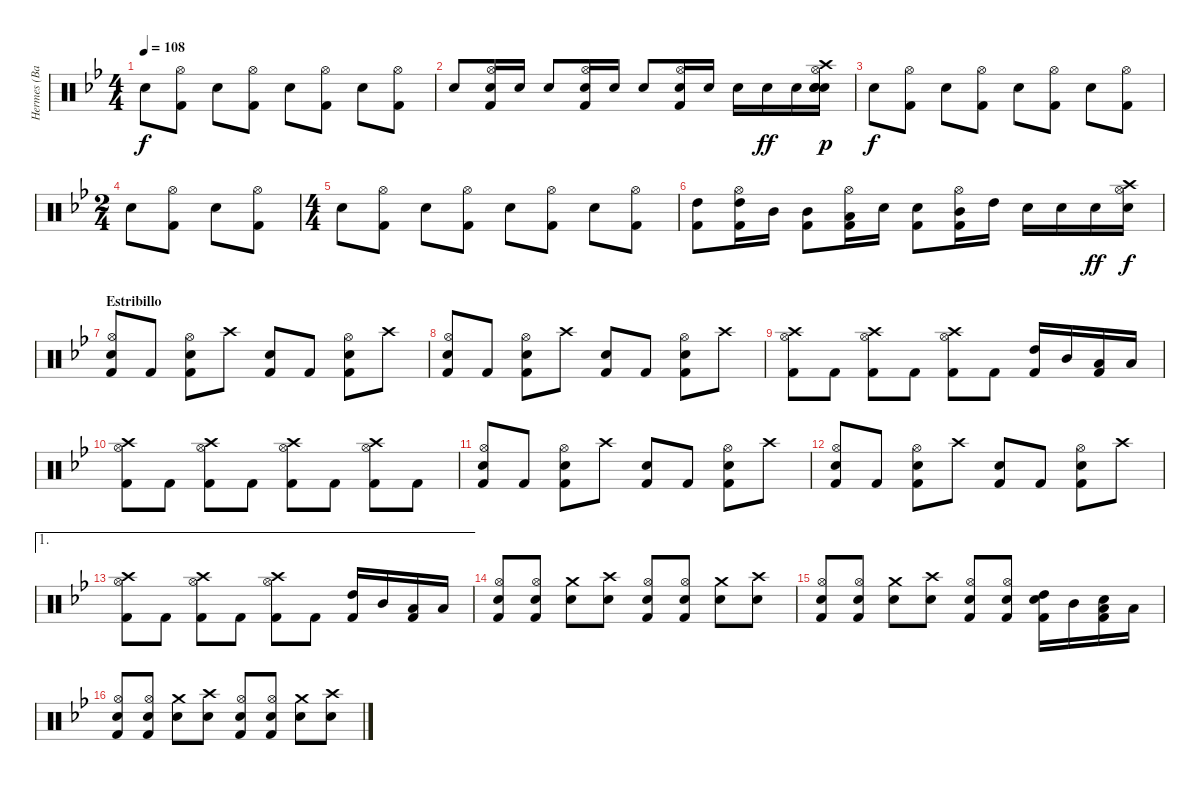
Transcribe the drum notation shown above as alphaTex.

\track ("Hermes (Bateria)" "Hermes (Ba") {instrument percussion}
\staff {score}
\articulation defaults
\ts (4 4)
\tempo 108
\clef neutral
\ks bb "Electric Snare (hit)".8{dy f}
("Hi-Hat (open)" "Kick (hit) 2").8 "Electric Snare (hit)".8 ("Hi-Hat (open)" "Kick (hit) 2").8 "Electric Snare (hit)".8 ("Hi-Hat (open)" "Kick (hit) 2").8 "Electric Snare (hit)".8 ("Hi-Hat (open)" "Kick (hit) 2").8 |
"Electric Snare (hit)".8 ("Hi-Hat (open)" "Electric Snare (hit)" "Kick (hit) 2").16 "Electric Snare (hit)".16 "Electric Snare (hit)".8 ("Hi-Hat (open)" "Electric Snare (hit)" "Kick (hit) 2").16 "Electric Snare (hit)".16 "Electric Snare (hit)".8 ("Hi-Hat (open)" "Electric Snare (hit)" "Kick (hit) 2").16 "Electric Snare (hit)".16 "Electric Snare (hit)".16 "Electric Snare (hit)".16{dy ff} "Electric Snare (hit)".16 ("Hi-Hat (open)" "Electric Snare (hit)" "Electric Snare (hit)" "Electric Snare (hit)" "Snare (hit) 2" "Crash high (hit)").16{dy p} |
"Electric Snare (hit)".8{dy f} ("Hi-Hat (open)" "Kick (hit) 2").8 "Electric Snare (hit)".8 ("Hi-Hat (open)" "Kick (hit) 2").8 "Electric Snare (hit)".8 ("Hi-Hat (open)" "Kick (hit) 2").8 "Electric Snare (hit)".8 ("Hi-Hat (open)" "Kick (hit) 2").8 |
\ts (2 4)
"Electric Snare (hit)".8 ("Hi-Hat (open)" "Kick (hit) 2").8 "Electric Snare (hit)".8 ("Hi-Hat (open)" "Kick (hit) 2").8 |
\ts (4 4)
"Electric Snare (hit)".8 ("Hi-Hat (open)" "Kick (hit) 2").8 "Electric Snare (hit)".8 ("Hi-Hat (open)" "Kick (hit) 2").8 "Electric Snare (hit)".8 ("Hi-Hat (open)" "Kick (hit) 2").8 "Electric Snare (hit)".8 ("Hi-Hat (open)" "Kick (hit) 2").8 |
("High Tom (hit)" "Kick (hit) 2").8 ("Hi-Hat (open)" "High Tom (hit)" "Kick (hit) 2").16 "Mid Tom (hit)".16 ("Mid Tom (hit)" "Kick (hit) 2").8 ("Hi-Hat (open)" "Low Tom (hit)" "Kick (hit) 2").16 "Electric Snare (hit)".16 ("Electric Snare (hit)" "Kick (hit) 2").8 ("Hi-Hat (open)" "Mid Tom (hit)" "Kick (hit) 2").16 "High Tom (hit)".16 "Electric Snare (hit)".16 "Electric Snare (hit)".16 "Electric Snare (hit)".16{dy ff} ("Hi-Hat (open)" "Electric Snare (hit)" "Crash high (hit)").16{dy f} |
\section ("" "Estribillo")
("Hi-Hat (open)" "Electric Snare (hit)" "Kick (hit) 2").8 "Kick (hit) 2".8 ("Hi-Hat (open)" "Electric Snare (hit)" "Kick (hit) 2").8 "Crash high (hit)".8 ("Electric Snare (hit)" "Kick (hit) 2").8 "Kick (hit) 2".8 ("Hi-Hat (open)" "Electric Snare (hit)" "Kick (hit) 2").8 "Crash high (hit)".8 |
("Hi-Hat (open)" "Electric Snare (hit)" "Kick (hit) 2").8 "Kick (hit) 2".8 ("Hi-Hat (open)" "Electric Snare (hit)" "Kick (hit) 2").8 "Crash high (hit)".8 ("Electric Snare (hit)" "Kick (hit) 2").8 "Kick (hit) 2".8 ("Hi-Hat (open)" "Electric Snare (hit)" "Kick (hit) 2").8 "Crash high (hit)".8 |
("Crash high (hit)" "Hi-Hat (open)" "Kick (hit) 2").8 "Kick (hit) 2".8 ("Crash high (hit)" "Hi-Hat (open)" "Kick (hit) 2").8 "Kick (hit) 2".8 ("Crash high (hit)" "Hi-Hat (open)" "Kick (hit) 2").8 "Kick (hit) 2".8 ("High Tom (hit)" "Kick (hit) 2").16 "Mid Tom (hit)".16 ("Low Tom (hit)" "Kick (hit) 2").16 "Low Tom (hit)".16 |
("Crash high (hit)" "Hi-Hat (open)" "Kick (hit) 2").8 "Kick (hit) 2".8 ("Crash high (hit)" "Hi-Hat (open)" "Kick (hit) 2").8 "Kick (hit) 2".8 ("Crash high (hit)" "Hi-Hat (open)" "Kick (hit) 2").8 "Kick (hit) 2".8 ("Crash high (hit)" "Hi-Hat (open)" "Kick (hit) 2").8 "Kick (hit) 2".8 |
("Hi-Hat (open)" "Electric Snare (hit)" "Kick (hit) 2").8 "Kick (hit) 2".8 ("Hi-Hat (open)" "Electric Snare (hit)" "Kick (hit) 2").8 "Crash high (hit)".8 ("Electric Snare (hit)" "Kick (hit) 2").8 "Kick (hit) 2".8 ("Hi-Hat (open)" "Electric Snare (hit)" "Kick (hit) 2").8 "Crash high (hit)".8 |
("Hi-Hat (open)" "Electric Snare (hit)" "Kick (hit) 2").8 "Kick (hit) 2".8 ("Hi-Hat (open)" "Electric Snare (hit)" "Kick (hit) 2").8 "Crash high (hit)".8 ("Electric Snare (hit)" "Kick (hit) 2").8 "Kick (hit) 2".8 ("Hi-Hat (open)" "Electric Snare (hit)" "Kick (hit) 2").8 "Crash high (hit)".8 |
\ae 1
("Crash high (hit)" "Hi-Hat (open)" "Kick (hit) 2").8 "Kick (hit) 2".8 ("Crash high (hit)" "Hi-Hat (open)" "Kick (hit) 2").8 "Kick (hit) 2".8 ("Crash high (hit)" "Hi-Hat (open)" "Kick (hit) 2").8 "Kick (hit) 2".8 ("High Tom (hit)" "Kick (hit) 2").16 "Mid Tom (hit)".16 ("Low Tom (hit)" "Kick (hit) 2").16 "Low Tom (hit)".16 |
("Hi-Hat (open)" "Electric Snare (hit)" "Kick (hit) 2").8 ("Hi-Hat (open)" "Electric Snare (hit)" "Kick (hit) 2").8 ("Crash medium (hit)" "Electric Snare (hit)").8 ("Crash high (hit)" "Electric Snare (hit)").8 ("Hi-Hat (open)" "Electric Snare (hit)" "Kick (hit) 2").8 ("Hi-Hat (open)" "Electric Snare (hit)" "Kick (hit) 2").8 ("Crash medium (hit)" "Electric Snare (hit)").8 ("Crash high (hit)" "Electric Snare (hit)").8 |
("Hi-Hat (open)" "Electric Snare (hit)" "Kick (hit) 2").8 ("Hi-Hat (open)" "Electric Snare (hit)" "Kick (hit) 2").8 ("Crash medium (hit)" "Electric Snare (hit)").8 ("Crash high (hit)" "Electric Snare (hit)").8 ("Hi-Hat (open)" "Electric Snare (hit)" "Kick (hit) 2").8 ("Hi-Hat (open)" "Electric Snare (hit)" "Kick (hit) 2").8 ("High Tom (hit)" "Electric Snare (hit)" "Kick (hit) 2").16 "Mid Tom (hit)".16 ("Low Tom (hit)" "Electric Snare (hit)" "Kick (hit) 2").16 "Low Tom (hit)".16 |
("Hi-Hat (open)" "Electric Snare (hit)" "Kick (hit) 2").8 ("Hi-Hat (open)" "Electric Snare (hit)" "Kick (hit) 2").8 ("Crash medium (hit)" "Electric Snare (hit)").8 ("Crash high (hit)" "Electric Snare (hit)").8 ("Hi-Hat (open)" "Electric Snare (hit)" "Kick (hit) 2").8 ("Hi-Hat (open)" "Electric Snare (hit)" "Kick (hit) 2").8 ("Crash medium (hit)" "Electric Snare (hit)").8 ("Crash high (hit)" "Electric Snare (hit)").8
